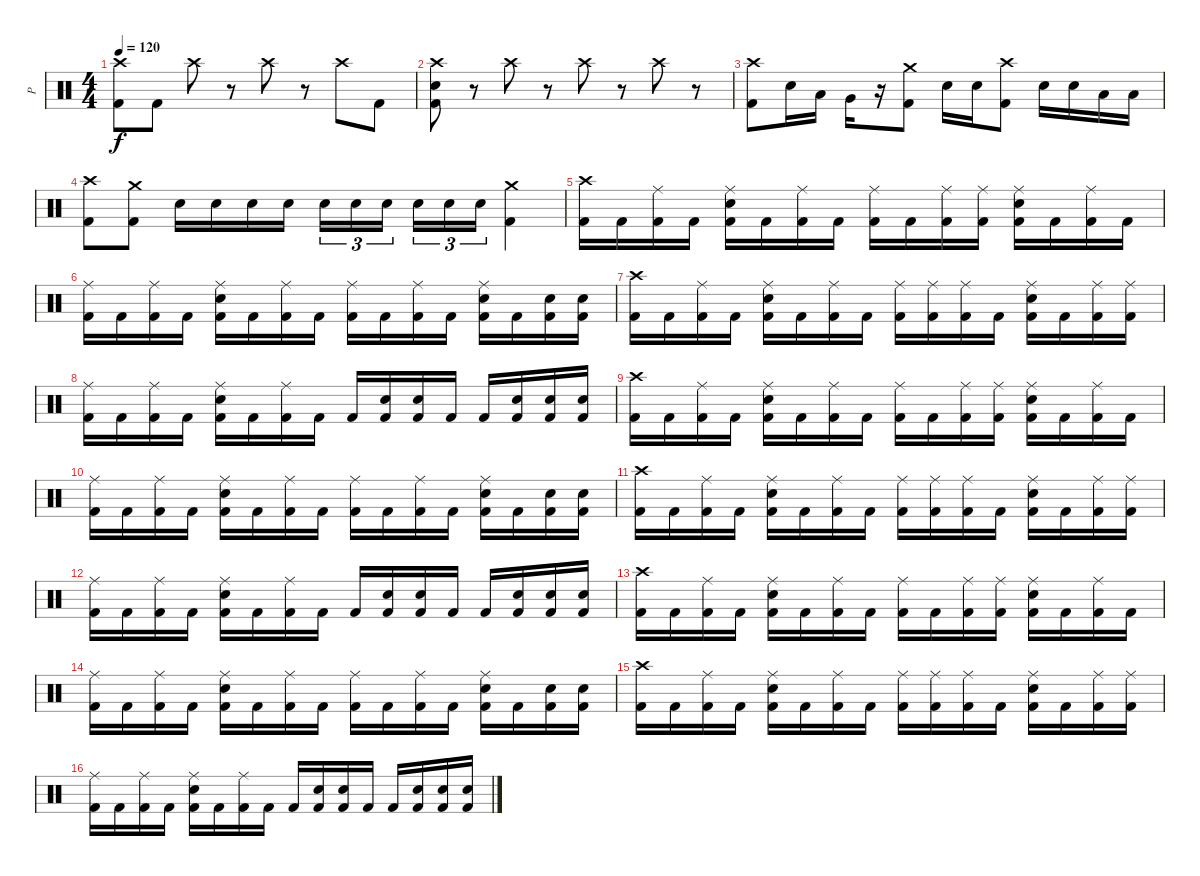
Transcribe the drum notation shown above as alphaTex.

\track ("P" "P") {instrument percussion}
\staff {score}
\articulation defaults
\ts (4 4)
\tempo 120
\clef neutral
\ks c
("Crash high (hit)" "Kick (hit) 2").8{dy f} "Kick (hit) 2".8 "Crash high (hit)".8 r.8 "Crash high (hit)".8 r.8 "Crash high (hit)".8 "Kick (hit) 2".8 |
("Crash high (hit)" "Electric Snare (hit)" "Kick (hit) 2").8 r.8 "Crash high (hit)".8 r.8 "Crash high (hit)".8 r.8 "Crash high (hit)".8 r.8 |
("Crash high (hit)" "Kick (hit) 2").8 "Electric Snare (hit)".16 "Low Tom (hit)".16 "Very Low Tom (hit)".16 r.16 ("Crash medium (hit)" "Kick (hit) 2").8 "Electric Snare (hit)".16 "Electric Snare (hit)".16 ("Crash high (hit)" "Kick (hit) 2").8 "Electric Snare (hit)".16 "Electric Snare (hit)".16 "Low Tom (hit)".16 "Low Tom (hit)".16 |
("Crash high (hit)" "Kick (hit) 2").8 ("Crash medium (hit)" "Kick (hit) 2").8 "Electric Snare (hit)".16 "Electric Snare (hit)".16 "Electric Snare (hit)".16 "Electric Snare (hit)".16 "Electric Snare (hit)".16{tu (3 2)} "Electric Snare (hit)".16{tu (3 2)} "Electric Snare (hit)".16{tu (3 2) beam splitsecondary} "Electric Snare (hit)".16{tu (3 2)} "Electric Snare (hit)".16{tu (3 2)} "Electric Snare (hit)".16{tu (3 2)} ("Crash medium (hit)" "Kick (hit) 2").4 |
("Crash high (hit)" "Kick (hit) 2").16 "Kick (hit) 2".16 ("Ride (middle)" "Kick (hit) 2").16 "Kick (hit) 2".16 ("Ride (middle)" "Electric Snare (hit)" "Kick (hit) 2").16 "Kick (hit) 2".16 ("Ride (middle)" "Kick (hit) 2").16 "Kick (hit) 2".16 ("Ride (middle)" "Kick (hit) 2").16 "Kick (hit) 2".16 ("Ride (middle)" "Kick (hit) 2").16 ("Ride (middle)" "Kick (hit) 2").16 ("Ride (middle)" "Electric Snare (hit)" "Kick (hit) 2").16 "Kick (hit) 2".16 ("Ride (middle)" "Kick (hit) 2").16 "Kick (hit) 2".16 |
("Ride (middle)" "Kick (hit) 2").16 "Kick (hit) 2".16 ("Ride (middle)" "Kick (hit) 2").16 "Kick (hit) 2".16 ("Ride (middle)" "Electric Snare (hit)" "Kick (hit) 2").16 "Kick (hit) 2".16 ("Ride (middle)" "Kick (hit) 2").16 "Kick (hit) 2".16 ("Ride (middle)" "Kick (hit) 2").16 "Kick (hit) 2".16 ("Ride (middle)" "Kick (hit) 2").16 "Kick (hit) 2".16 ("Ride (middle)" "Electric Snare (hit)" "Kick (hit) 2").16 "Kick (hit) 2".16 ("Electric Snare (hit)" "Kick (hit) 2").16 ("Electric Snare (hit)" "Kick (hit) 2").16 |
("Crash high (hit)" "Kick (hit) 2").16 "Kick (hit) 2".16 ("Ride (middle)" "Kick (hit) 2").16 "Kick (hit) 2".16 ("Ride (middle)" "Electric Snare (hit)" "Kick (hit) 2").16 "Kick (hit) 2".16 ("Ride (middle)" "Kick (hit) 2").16 "Kick (hit) 2".16 ("Ride (middle)" "Kick (hit) 2").16 ("Ride (middle)" "Kick (hit) 2").16 ("Ride (middle)" "Kick (hit) 2").16 "Kick (hit) 2".16 ("Ride (middle)" "Electric Snare (hit)" "Kick (hit) 2").16 "Kick (hit) 2".16 ("Ride (middle)" "Kick (hit) 2").16 ("Ride (middle)" "Kick (hit) 2").16 |
("Ride (middle)" "Kick (hit) 2").16 "Kick (hit) 2".16 ("Ride (middle)" "Kick (hit) 2").16 "Kick (hit) 2".16 ("Ride (middle)" "Electric Snare (hit)" "Kick (hit) 2").16 "Kick (hit) 2".16 ("Ride (middle)" "Kick (hit) 2").16 "Kick (hit) 2".16 "Kick (hit) 2".16 ("Electric Snare (hit)" "Kick (hit) 2").16 ("Electric Snare (hit)" "Kick (hit) 2").16 "Kick (hit) 2".16 "Kick (hit) 2".16 ("Electric Snare (hit)" "Kick (hit) 2").16 ("Electric Snare (hit)" "Kick (hit) 2").16 ("Electric Snare (hit)" "Kick (hit) 2").16 |
("Crash high (hit)" "Kick (hit) 2").16 "Kick (hit) 2".16 ("Ride (middle)" "Kick (hit) 2").16 "Kick (hit) 2".16 ("Ride (middle)" "Electric Snare (hit)" "Kick (hit) 2").16 "Kick (hit) 2".16 ("Ride (middle)" "Kick (hit) 2").16 "Kick (hit) 2".16 ("Ride (middle)" "Kick (hit) 2").16 "Kick (hit) 2".16 ("Ride (middle)" "Kick (hit) 2").16 ("Ride (middle)" "Kick (hit) 2").16 ("Ride (middle)" "Electric Snare (hit)" "Kick (hit) 2").16 "Kick (hit) 2".16 ("Ride (middle)" "Kick (hit) 2").16 "Kick (hit) 2".16 |
("Ride (middle)" "Kick (hit) 2").16 "Kick (hit) 2".16 ("Ride (middle)" "Kick (hit) 2").16 "Kick (hit) 2".16 ("Ride (middle)" "Electric Snare (hit)" "Kick (hit) 2").16 "Kick (hit) 2".16 ("Ride (middle)" "Kick (hit) 2").16 "Kick (hit) 2".16 ("Ride (middle)" "Kick (hit) 2").16 "Kick (hit) 2".16 ("Ride (middle)" "Kick (hit) 2").16 "Kick (hit) 2".16 ("Ride (middle)" "Electric Snare (hit)" "Kick (hit) 2").16 "Kick (hit) 2".16 ("Electric Snare (hit)" "Kick (hit) 2").16 ("Electric Snare (hit)" "Kick (hit) 2").16 |
("Crash high (hit)" "Kick (hit) 2").16 "Kick (hit) 2".16 ("Ride (middle)" "Kick (hit) 2").16 "Kick (hit) 2".16 ("Ride (middle)" "Electric Snare (hit)" "Kick (hit) 2").16 "Kick (hit) 2".16 ("Ride (middle)" "Kick (hit) 2").16 "Kick (hit) 2".16 ("Ride (middle)" "Kick (hit) 2").16 ("Ride (middle)" "Kick (hit) 2").16 ("Ride (middle)" "Kick (hit) 2").16 "Kick (hit) 2".16 ("Ride (middle)" "Electric Snare (hit)" "Kick (hit) 2").16 "Kick (hit) 2".16 ("Ride (middle)" "Kick (hit) 2").16 ("Ride (middle)" "Kick (hit) 2").16 |
("Ride (middle)" "Kick (hit) 2").16 "Kick (hit) 2".16 ("Ride (middle)" "Kick (hit) 2").16 "Kick (hit) 2".16 ("Ride (middle)" "Electric Snare (hit)" "Kick (hit) 2").16 "Kick (hit) 2".16 ("Ride (middle)" "Kick (hit) 2").16 "Kick (hit) 2".16 "Kick (hit) 2".16 ("Electric Snare (hit)" "Kick (hit) 2").16 ("Electric Snare (hit)" "Kick (hit) 2").16 "Kick (hit) 2".16 "Kick (hit) 2".16 ("Electric Snare (hit)" "Kick (hit) 2").16 ("Electric Snare (hit)" "Kick (hit) 2").16 ("Electric Snare (hit)" "Kick (hit) 2").16 |
("Crash high (hit)" "Kick (hit) 2").16 "Kick (hit) 2".16 ("Ride (middle)" "Kick (hit) 2").16 "Kick (hit) 2".16 ("Ride (middle)" "Electric Snare (hit)" "Kick (hit) 2").16 "Kick (hit) 2".16 ("Ride (middle)" "Kick (hit) 2").16 "Kick (hit) 2".16 ("Ride (middle)" "Kick (hit) 2").16 "Kick (hit) 2".16 ("Ride (middle)" "Kick (hit) 2").16 ("Ride (middle)" "Kick (hit) 2").16 ("Ride (middle)" "Electric Snare (hit)" "Kick (hit) 2").16 "Kick (hit) 2".16 ("Ride (middle)" "Kick (hit) 2").16 "Kick (hit) 2".16 |
("Ride (middle)" "Kick (hit) 2").16 "Kick (hit) 2".16 ("Ride (middle)" "Kick (hit) 2").16 "Kick (hit) 2".16 ("Ride (middle)" "Electric Snare (hit)" "Kick (hit) 2").16 "Kick (hit) 2".16 ("Ride (middle)" "Kick (hit) 2").16 "Kick (hit) 2".16 ("Ride (middle)" "Kick (hit) 2").16 "Kick (hit) 2".16 ("Ride (middle)" "Kick (hit) 2").16 "Kick (hit) 2".16 ("Ride (middle)" "Electric Snare (hit)" "Kick (hit) 2").16 "Kick (hit) 2".16 ("Electric Snare (hit)" "Kick (hit) 2").16 ("Electric Snare (hit)" "Kick (hit) 2").16 |
("Crash high (hit)" "Kick (hit) 2").16 "Kick (hit) 2".16 ("Ride (middle)" "Kick (hit) 2").16 "Kick (hit) 2".16 ("Ride (middle)" "Electric Snare (hit)" "Kick (hit) 2").16 "Kick (hit) 2".16 ("Ride (middle)" "Kick (hit) 2").16 "Kick (hit) 2".16 ("Ride (middle)" "Kick (hit) 2").16 ("Ride (middle)" "Kick (hit) 2").16 ("Ride (middle)" "Kick (hit) 2").16 "Kick (hit) 2".16 ("Ride (middle)" "Electric Snare (hit)" "Kick (hit) 2").16 "Kick (hit) 2".16 ("Ride (middle)" "Kick (hit) 2").16 ("Ride (middle)" "Kick (hit) 2").16 |
("Ride (middle)" "Kick (hit) 2").16 "Kick (hit) 2".16 ("Ride (middle)" "Kick (hit) 2").16 "Kick (hit) 2".16 ("Ride (middle)" "Electric Snare (hit)" "Kick (hit) 2").16 "Kick (hit) 2".16 ("Ride (middle)" "Kick (hit) 2").16 "Kick (hit) 2".16 "Kick (hit) 2".16 ("Electric Snare (hit)" "Kick (hit) 2").16 ("Electric Snare (hit)" "Kick (hit) 2").16 "Kick (hit) 2".16 "Kick (hit) 2".16 ("Electric Snare (hit)" "Kick (hit) 2").16 ("Electric Snare (hit)" "Kick (hit) 2").16 ("Electric Snare (hit)" "Kick (hit) 2").16
